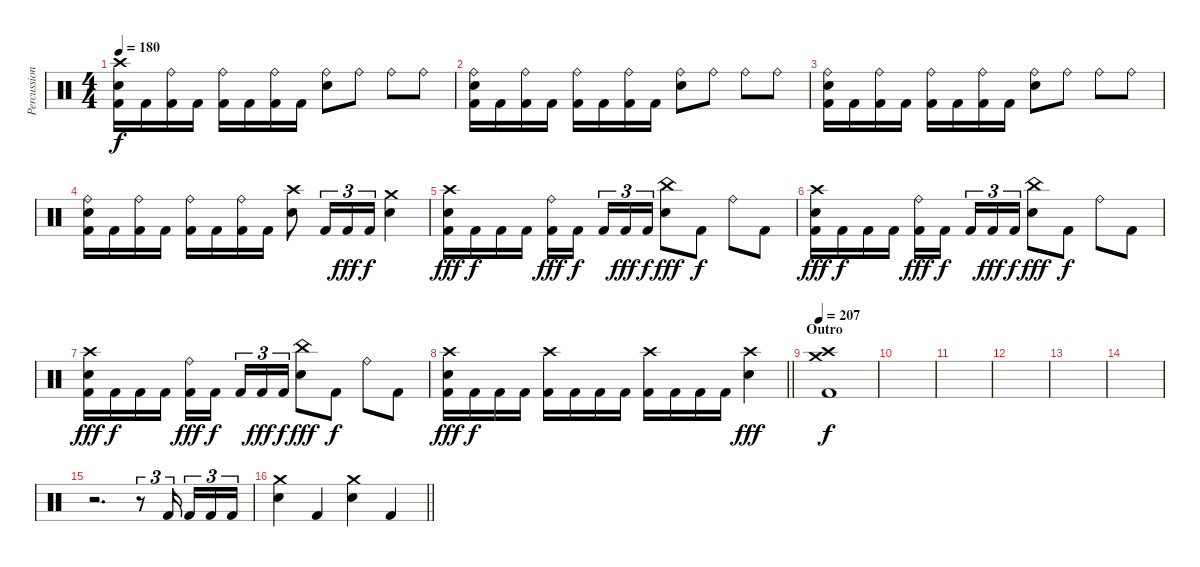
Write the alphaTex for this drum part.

\track ("Percussion" "Percussion") {instrument percussion}
\staff {score}
\articulation defaults
\ts (4 4)
\tempo 180
\clef neutral
\ks c
("Crash high (hit)" "Electric Snare (hit)" "Kick (hit) 2").16{dy f} "Kick (hit) 2".16 ("Ride (bell)" "Kick (hit) 2").16 "Kick (hit) 2".16 ("Ride (bell)" "Kick (hit) 2").16 "Kick (hit) 2".16 ("Ride (bell)" "Kick (hit) 2").16 "Kick (hit) 2".16 ("Ride (bell)" "Electric Snare (hit)").8 "Ride (bell)".8 "Ride (bell)".8 "Ride (bell)".8 |
("Ride (bell)" "Electric Snare (hit)" "Kick (hit) 2").16 "Kick (hit) 2".16 ("Ride (bell)" "Kick (hit) 2").16 "Kick (hit) 2".16 ("Ride (bell)" "Kick (hit) 2").16 "Kick (hit) 2".16 ("Ride (bell)" "Kick (hit) 2").16 "Kick (hit) 2".16 ("Ride (bell)" "Electric Snare (hit)").8 "Ride (bell)".8 "Ride (bell)".8 "Ride (bell)".8 |
("Ride (bell)" "Electric Snare (hit)" "Kick (hit) 2").16 "Kick (hit) 2".16 ("Ride (bell)" "Kick (hit) 2").16 "Kick (hit) 2".16 ("Ride (bell)" "Kick (hit) 2").16 "Kick (hit) 2".16 ("Ride (bell)" "Kick (hit) 2").16 "Kick (hit) 2".16 ("Ride (bell)" "Electric Snare (hit)").8 "Ride (bell)".8 "Ride (bell)".8 "Ride (bell)".8 |
("Ride (bell)" "Electric Snare (hit)" "Kick (hit) 2").16 "Kick (hit) 2".16 ("Ride (bell)" "Kick (hit) 2").16 "Kick (hit) 2".16 ("Ride (bell)" "Kick (hit) 2").16 "Kick (hit) 2".16 ("Ride (bell)" "Kick (hit) 2").16 "Kick (hit) 2".16 ("Crash high (hit)" "Electric Snare (hit)").8 "Kick (hit) 2".16{tu (3 2)} "Kick (hit) 2".16{tu (3 2) dy fff} "Kick (hit) 2".16{tu (3 2) dy f} ("Crash medium (hit)" "Electric Snare (hit)").4 |
("Crash high (hit)" "Electric Snare (hit)" "Kick (hit) 2").16{dy fff} "Kick (hit) 2".16{dy f} "Kick (hit) 2".16 "Kick (hit) 2".16 ("Ride (bell)" "Kick (hit) 2").16{dy fff} "Kick (hit) 2".16{dy f beam splitsecondary} "Kick (hit) 2".16{tu (3 2)} "Kick (hit) 2".16{tu (3 2) dy fff} "Kick (hit) 2".16{tu (3 2) dy f} ("China (hit)" "Electric Snare (hit)").8{dy fff} "Kick (hit) 2".8{dy f} "Ride (bell)".8 "Kick (hit) 2".8 |
("Crash high (hit)" "Electric Snare (hit)" "Kick (hit) 2").16{dy fff} "Kick (hit) 2".16{dy f} "Kick (hit) 2".16 "Kick (hit) 2".16 ("Ride (bell)" "Kick (hit) 2").16{dy fff} "Kick (hit) 2".16{dy f beam splitsecondary} "Kick (hit) 2".16{tu (3 2)} "Kick (hit) 2".16{tu (3 2) dy fff} "Kick (hit) 2".16{tu (3 2) dy f} ("China (hit)" "Electric Snare (hit)").8{dy fff} "Kick (hit) 2".8{dy f} "Ride (bell)".8 "Kick (hit) 2".8 |
("Crash high (hit)" "Electric Snare (hit)" "Kick (hit) 2").16{dy fff} "Kick (hit) 2".16{dy f} "Kick (hit) 2".16 "Kick (hit) 2".16 ("Ride (bell)" "Kick (hit) 2").16{dy fff} "Kick (hit) 2".16{dy f beam splitsecondary} "Kick (hit) 2".16{tu (3 2)} "Kick (hit) 2".16{tu (3 2) dy fff} "Kick (hit) 2".16{tu (3 2) dy f} ("China (hit)" "Electric Snare (hit)").8{dy fff} "Kick (hit) 2".8{dy f} "Ride (bell)".8 "Kick (hit) 2".8 |
\barLineRight lightlight
("Crash high (hit)" "Electric Snare (hit)" "Kick (hit) 2").16{dy fff} "Kick (hit) 2".16{dy f} "Kick (hit) 2".16 "Kick (hit) 2".16 ("Crash high (hit)" "Kick (hit) 2").16 "Kick (hit) 2".16 "Kick (hit) 2".16 "Kick (hit) 2".16 ("Crash high (hit)" "Kick (hit) 2").16 "Kick (hit) 2".16 "Kick (hit) 2".16 "Kick (hit) 2".16 ("Crash high (hit)" "Electric Snare (hit)").4{dy fff} |
\section ("" "Outro")
\tempo 207
("Crash high (hit)" "Crash medium (hit)" "Kick (hit) 2").1{dy f} |
|
|
|
|
|
r.2{d} r.8{tu (3 2)} "Kick (hit) 2".16{tu (3 2) beam splitsecondary} "Kick (hit) 2".16{tu (3 2)} "Kick (hit) 2".16{tu (3 2)} "Kick (hit) 2".16{tu (3 2)} |
\barLineRight lightlight
("Crash medium (hit)" "Electric Snare (hit)").4 "Kick (hit) 2".4 ("Crash medium (hit)" "Electric Snare (hit)").4 "Kick (hit) 2".4
